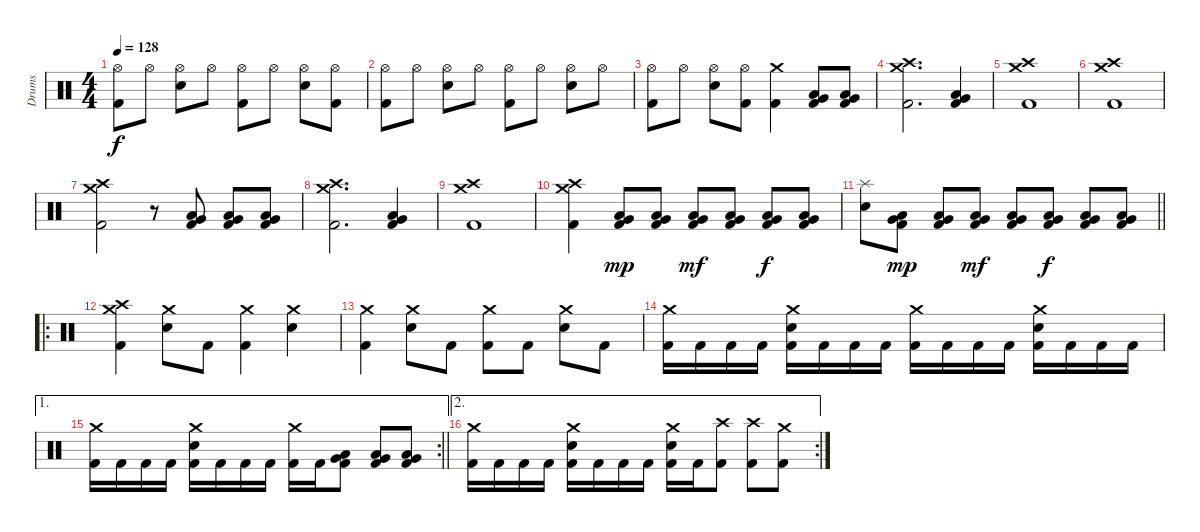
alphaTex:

\track ("Drums" "Drums") {instrument percussion}
\staff {score}
\articulation defaults
\ts (4 4)
\tempo 128
\clef neutral
\ks c
("Hi-Hat (open)" "Kick (hit) 2").8{dy f} "Hi-Hat (open)".8 ("Hi-Hat (open)" "Electric Snare (hit)").8 "Hi-Hat (open)".8 ("Hi-Hat (open)" "Kick (hit) 2").8 "Hi-Hat (open)".8 ("Hi-Hat (open)" "Electric Snare (hit)").8 ("Hi-Hat (open)" "Kick (hit) 2").8 |
("Hi-Hat (open)" "Kick (hit) 2").8 "Hi-Hat (open)".8 ("Hi-Hat (open)" "Electric Snare (hit)").8 "Hi-Hat (open)".8 ("Hi-Hat (open)" "Kick (hit) 2").8 "Hi-Hat (open)".8 ("Hi-Hat (open)" "Electric Snare (hit)").8 "Hi-Hat (open)".8 |
("Hi-Hat (open)" "Kick (hit) 2").8 "Hi-Hat (open)".8 ("Hi-Hat (open)" "Electric Snare (hit)").8 ("Hi-Hat (open)" "Kick (hit) 2").8 ("Crash medium (hit)" "Kick (hit) 2").4 ("Low Floor Tom (hit)" "Very Low Tom (hit)" "Kick (hit) 2").8 ("Low Floor Tom (hit)" "Very Low Tom (hit)" "Kick (hit) 2").8 |
("Crash medium (hit)" "Crash high (hit)" "Kick (hit) 2").2{d} ("Low Floor Tom (hit)" "Very Low Tom (hit)" "Kick (hit) 2").4 |
("Crash medium (hit)" "Crash high (hit)" "Kick (hit) 2").1 |
("Crash medium (hit)" "Crash high (hit)" "Kick (hit) 2").1 |
("Crash medium (hit)" "Crash high (hit)" "Kick (hit) 2").2 r.8 ("Low Floor Tom (hit)" "Very Low Tom (hit)" "Kick (hit) 2").8 ("Low Floor Tom (hit)" "Very Low Tom (hit)" "Kick (hit) 2").8 ("Low Floor Tom (hit)" "Very Low Tom (hit)" "Kick (hit) 2").8 |
("Crash medium (hit)" "Crash high (hit)" "Kick (hit) 2").2{d} ("Low Floor Tom (hit)" "Very Low Tom (hit)" "Kick (hit) 2").4 |
("Crash medium (hit)" "Crash high (hit)" "Kick (hit) 2").1 |
("Crash medium (hit)" "Crash high (hit)" "Kick (hit) 2").4 ("Low Floor Tom (hit)" "Very Low Tom (hit)" "Kick (hit) 2").8{dy mp} ("Low Floor Tom (hit)" "Very Low Tom (hit)" "Kick (hit) 2").8 ("Low Floor Tom (hit)" "Very Low Tom (hit)" "Kick (hit) 2").8{dy mf} ("Low Floor Tom (hit)" "Very Low Tom (hit)" "Kick (hit) 2").8 ("Low Floor Tom (hit)" "Very Low Tom (hit)" "Kick (hit) 2").8{dy f} ("Low Floor Tom (hit)" "Very Low Tom (hit)" "Kick (hit) 2").8 |
\barLineRight lightlight
("Splash (hit)" "Electric Snare (hit)").8 ("Low Floor Tom (hit)" "Very Low Tom (hit)" "Kick (hit) 2").8{dy mp} ("Low Floor Tom (hit)" "Very Low Tom (hit)" "Kick (hit) 2").8 ("Low Floor Tom (hit)" "Very Low Tom (hit)" "Kick (hit) 2").8{dy mf} ("Low Floor Tom (hit)" "Very Low Tom (hit)" "Kick (hit) 2").8 ("Low Floor Tom (hit)" "Very Low Tom (hit)" "Kick (hit) 2").8{dy f} ("Low Floor Tom (hit)" "Very Low Tom (hit)" "Kick (hit) 2").8 ("Low Floor Tom (hit)" "Very Low Tom (hit)" "Kick (hit) 2").8 |
\ro
("Crash medium (hit)" "Crash high (hit)" "Kick (hit) 2").4 ("Crash medium (hit)" "Electric Snare (hit)").8 "Kick (hit) 2".8 ("Crash medium (hit)" "Kick (hit) 2").4 ("Crash medium (hit)" "Electric Snare (hit)").4 |
("Crash medium (hit)" "Kick (hit) 2").4 ("Crash medium (hit)" "Electric Snare (hit)").8 "Kick (hit) 2".8 ("Crash medium (hit)" "Kick (hit) 2").8 "Kick (hit) 2".8 ("Crash medium (hit)" "Electric Snare (hit)").8 "Kick (hit) 2".8 |
("Crash medium (hit)" "Kick (hit) 2").16 "Kick (hit) 2".16 "Kick (hit) 2".16 "Kick (hit) 2".16 ("Crash medium (hit)" "Electric Snare (hit)" "Kick (hit) 2").16 "Kick (hit) 2".16 "Kick (hit) 2".16 "Kick (hit) 2".16 ("Crash medium (hit)" "Kick (hit) 2").16 "Kick (hit) 2".16 "Kick (hit) 2".16 "Kick (hit) 2".16 ("Crash medium (hit)" "Electric Snare (hit)" "Kick (hit) 2").16 "Kick (hit) 2".16 "Kick (hit) 2".16 "Kick (hit) 2".16 |
\ae 1
\rc 2
\barLineRight lightlight
("Crash medium (hit)" "Kick (hit) 2").16 "Kick (hit) 2".16 "Kick (hit) 2".16 "Kick (hit) 2".16 ("Crash medium (hit)" "Electric Snare (hit)" "Kick (hit) 2").16 "Kick (hit) 2".16 "Kick (hit) 2".16 "Kick (hit) 2".16 ("Crash medium (hit)" "Kick (hit) 2").16 "Kick (hit) 2".16 ("Low Floor Tom (hit)" "Very Low Tom (hit)" "Kick (hit) 2").8 ("Low Floor Tom (hit)" "Very Low Tom (hit)" "Kick (hit) 2").8 ("Low Floor Tom (hit)" "Very Low Tom (hit)" "Kick (hit) 2").8 |
\ae 2
\rc 2
("Crash medium (hit)" "Kick (hit) 2").16 "Kick (hit) 2".16 "Kick (hit) 2".16 "Kick (hit) 2".16 ("Crash medium (hit)" "Electric Snare (hit)" "Kick (hit) 2").16 "Kick (hit) 2".16 "Kick (hit) 2".16 "Kick (hit) 2".16 ("Crash medium (hit)" "Electric Snare (hit)" "Kick (hit) 2").16 "Kick (hit) 2".16 ("Crash high (hit)" "Kick (hit) 2").8 ("Crash high (hit)" "Kick (hit) 2").8 ("Crash medium (hit)" "Kick (hit) 2").8
